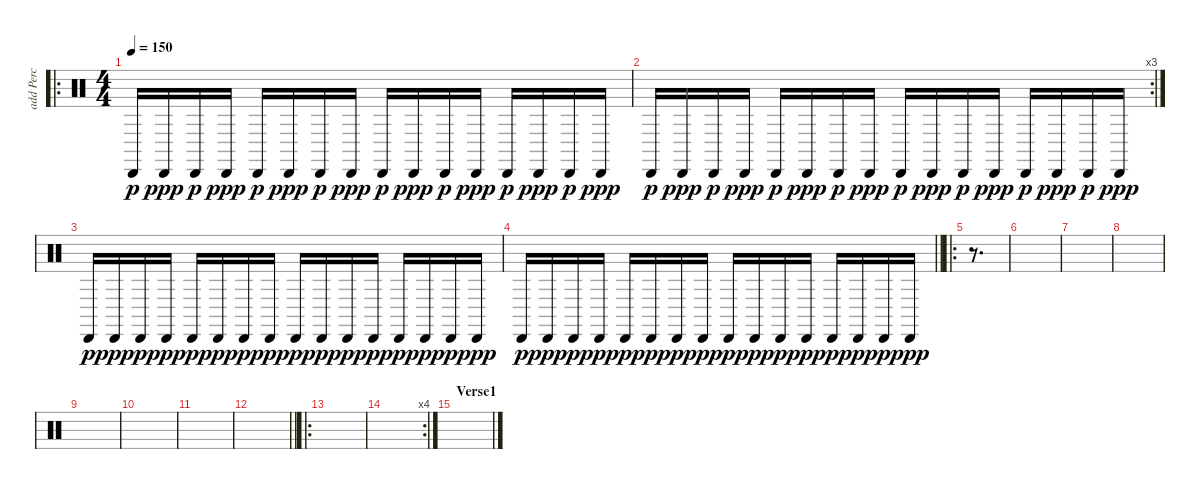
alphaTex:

\track ("add Perc" "add Perc") {instrument percussion}
\staff {score}
\articulation defaults
\ro
\ts (4 4)
\tempo 150
\clef neutral
\ks c "Cabasa (hit)".16{dy p} "Cabasa (hit)".16{dy ppp} "Cabasa (hit)".16{dy p} "Cabasa (hit)".16{dy ppp} "Cabasa (hit)".16{dy p} "Cabasa (hit)".16{dy ppp} "Cabasa (hit)".16{dy p} "Cabasa (hit)".16{dy ppp} "Cabasa (hit)".16{dy p} "Cabasa (hit)".16{dy ppp} "Cabasa (hit)".16{dy p} "Cabasa (hit)".16{dy ppp} "Cabasa (hit)".16{dy p} "Cabasa (hit)".16{dy ppp} "Cabasa (hit)".16{dy p} "Cabasa (hit)".16{dy ppp}
|
\rc 3 "Cabasa (hit)".16{dy p} "Cabasa (hit)".16{dy ppp} "Cabasa (hit)".16{dy p} "Cabasa (hit)".16{dy ppp} "Cabasa (hit)".16{dy p} "Cabasa (hit)".16{dy ppp} "Cabasa (hit)".16{dy p} "Cabasa (hit)".16{dy ppp} "Cabasa (hit)".16{dy p} "Cabasa (hit)".16{dy ppp} "Cabasa (hit)".16{dy p} "Cabasa (hit)".16{dy ppp} "Cabasa (hit)".16{dy p} "Cabasa (hit)".16{dy ppp} "Cabasa (hit)".16{dy p} "Cabasa (hit)".16{dy ppp}
|
"Cabasa (hit)".16{dy p} "Cabasa (hit)".16{dy ppp} "Cabasa (hit)".16{dy p} "Cabasa (hit)".16{dy ppp} "Cabasa (hit)".16{dy p} "Cabasa (hit)".16{dy ppp} "Cabasa (hit)".16{dy p} "Cabasa (hit)".16{dy ppp} "Cabasa (hit)".16{dy p} "Cabasa (hit)".16{dy ppp} "Cabasa (hit)".16{dy p} "Cabasa (hit)".16{dy ppp} "Cabasa (hit)".16{dy p} "Cabasa (hit)".16{dy ppp} "Cabasa (hit)".16{dy p} "Cabasa (hit)".16{dy ppp} |
\barLineRight lightlight "Cabasa (hit)".16{dy p} "Cabasa (hit)".16{dy ppp} "Cabasa (hit)".16{dy p} "Cabasa (hit)".16{dy ppp} "Cabasa (hit)".16{dy p} "Cabasa (hit)".16{dy ppp} "Cabasa (hit)".16{dy p} "Cabasa (hit)".16{dy ppp} "Cabasa (hit)".16{dy p} "Cabasa (hit)".16{dy ppp} "Cabasa (hit)".16{dy p} "Cabasa (hit)".16{dy ppp} "Cabasa (hit)".16{dy p} "Cabasa (hit)".16{dy ppp} "Cabasa (hit)".16{dy p} "Cabasa (hit)".16{dy ppp}
|
\ro
r.8{d} |
|
|
|
|
|
|
\barLineRight lightlight
|
\ro
|
\rc 4
|
\section ("" "Verse1")
